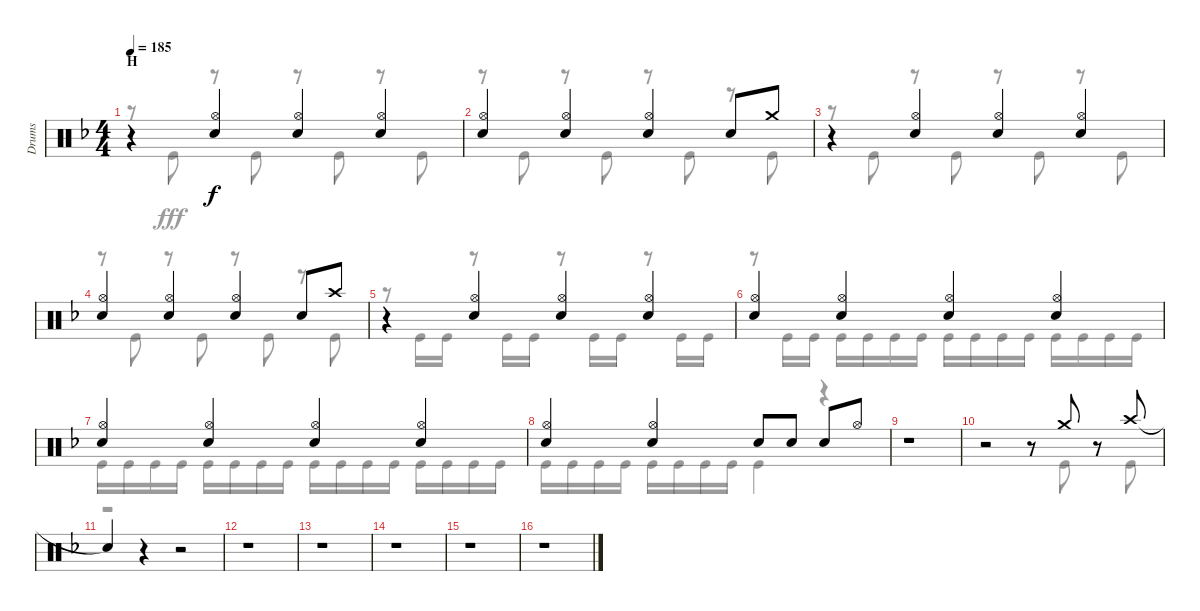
\track ("Drums" "Drums") {instrument percussion}
\staff {score}
\articulation defaults
\voice
\ts (4 4)
\section ("" "H")
\tempo 185
\clef neutral
\ks f
r.4{dy f} ("Hi-Hat (open)" "Snare (hit) 2").4 ("Hi-Hat (open)" "Snare (hit) 2").4 ("Hi-Hat (open)" "Snare (hit) 2").4 |
("Hi-Hat (open)" "Snare (hit) 2").4 ("Hi-Hat (open)" "Snare (hit) 2").4 ("Hi-Hat (open)" "Snare (hit) 2").4 "Snare (hit) 2".8 "Crash medium (hit)".8 |
r.4 ("Hi-Hat (open)" "Snare (hit) 2").4 ("Hi-Hat (open)" "Snare (hit) 2").4 ("Hi-Hat (open)" "Snare (hit) 2").4 |
("Hi-Hat (open)" "Snare (hit) 2").4 ("Hi-Hat (open)" "Snare (hit) 2").4 ("Hi-Hat (open)" "Snare (hit) 2").4 "Snare (hit) 2".8 "Crash high (hit)".8 |
r.4 ("Hi-Hat (open)" "Snare (hit) 2").4 ("Hi-Hat (open)" "Snare (hit) 2").4 ("Hi-Hat (open)" "Snare (hit) 2").4 |
("Hi-Hat (open)" "Snare (hit) 2").4 ("Hi-Hat (open)" "Snare (hit) 2").4 ("Hi-Hat (open)" "Snare (hit) 2").4 ("Hi-Hat (open)" "Snare (hit) 2").4 |
("Hi-Hat (open)" "Snare (hit) 2").4 ("Hi-Hat (open)" "Snare (hit) 2").4 ("Hi-Hat (open)" "Snare (hit) 2").4 ("Hi-Hat (open)" "Snare (hit) 2").4 |
("Hi-Hat (open)" "Snare (hit) 2").4 ("Hi-Hat (open)" "Snare (hit) 2").4 "Snare (hit) 2".8 "Snare (hit) 2".8 "Snare (hit) 2".8 "Hi-Hat (open)".8 |
r.1 |
r.2 r.8 "Crash medium (hit)".8 r.8 "Crash high (hit)".8 |
"Snare (hit)"{t}.4 r.4 r.2 |
r.1 |
r.1 |
r.1 |
r.1 |
r.1
\voice
\clef neutral
\ottava regular
\simile none
\ks f
r.8{dy fff} "Kick (hit)".8 r.8 "Kick (hit)".8 r.8 "Kick (hit)".8 r.8 "Kick (hit)".8 |
r.8 "Kick (hit)".8 r.8 "Kick (hit)".8 r.8 "Kick (hit)".8 r.8 "Kick (hit)".8 |
r.8 "Kick (hit)".8 r.8 "Kick (hit)".8 r.8 "Kick (hit)".8 r.8 "Kick (hit)".8 |
r.8 "Kick (hit)".8 r.8 "Kick (hit)".8 r.8 "Kick (hit)".8 r.8 "Kick (hit)".8 |
r.8 "Kick (hit)".16 "Kick (hit)".16 r.8 "Kick (hit)".16 "Kick (hit)".16 r.8 "Kick (hit)".16 "Kick (hit)".16 r.8 "Kick (hit)".16 "Kick (hit)".16 |
r.8 "Kick (hit)".16 "Kick (hit)".16 "Kick (hit)".16 "Kick (hit)".16 "Kick (hit)".16 "Kick (hit)".16 "Kick (hit)".16 "Kick (hit)".16 "Kick (hit)".16 "Kick (hit)".16 "Kick (hit)".16 "Kick (hit)".16 "Kick (hit)".16 "Kick (hit)".16 |
"Kick (hit)".16 "Kick (hit)".16 "Kick (hit)".16 "Kick (hit)".16 "Kick (hit)".16 "Kick (hit)".16 "Kick (hit)".16 "Kick (hit)".16 "Kick (hit)".16 "Kick (hit)".16 "Kick (hit)".16 "Kick (hit)".16 "Kick (hit)".16 "Kick (hit)".16 "Kick (hit)".16 "Kick (hit)".16 |
"Kick (hit)".16 "Kick (hit)".16 "Kick (hit)".16 "Kick (hit)".16 "Kick (hit)".16 "Kick (hit)".16 "Kick (hit)".16 "Kick (hit)".16 "Kick (hit)".4 r.4 |
r.1 |
r.2 r.8 "Kick (hit)".8 r.8 "Kick (hit)".8 |
r.1 |
r.1 |
r.1 |
r.1 |
r.1 |
r.1
